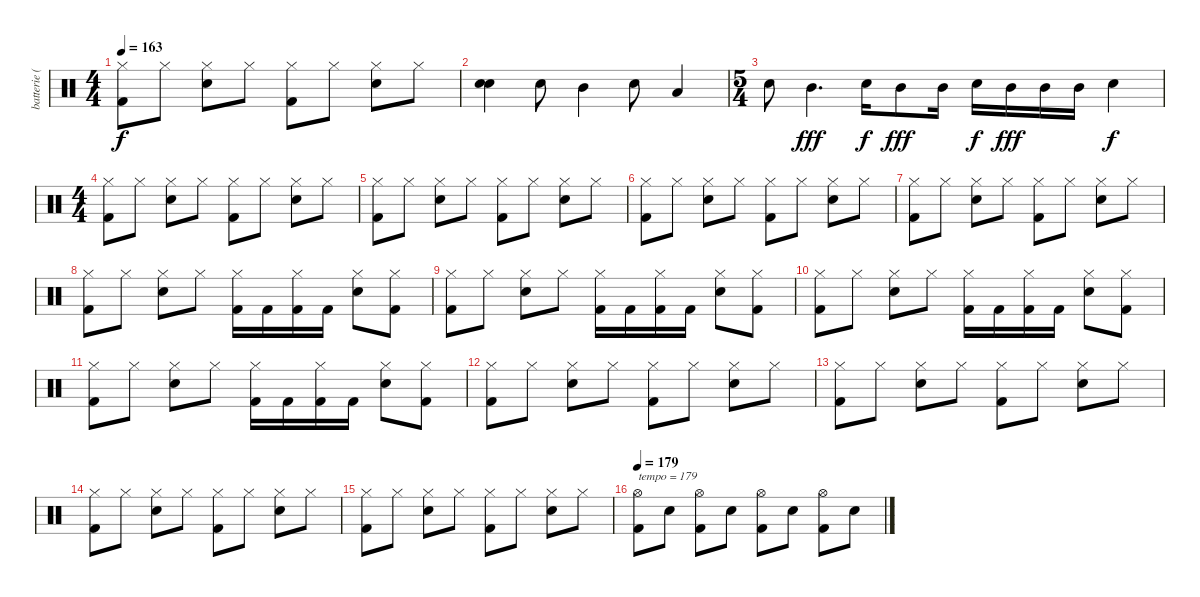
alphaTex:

\track ("batterie ( Carlos ) " "batterie (") {instrument percussion}
\staff {score}
\articulation defaults
\ts (4 4)
\tempo 163
\clef neutral
\ks c
("Hi-Hat (closed)" "Kick (hit) 2").8{dy f} "Hi-Hat (closed)".8 ("Hi-Hat (closed)" "Electric Snare (hit)").8 "Hi-Hat (closed)".8 ("Hi-Hat (closed)" "Kick (hit) 2").8 "Hi-Hat (closed)".8 ("Hi-Hat (closed)" "Electric Snare (hit)").8 "Hi-Hat (closed)".8 |
("Electric Snare (hit)" "Snare (hit) 2").4 "Electric Snare (hit)".8 "Mid Tom (hit)".4 "Electric Snare (hit)".8 "Low Tom (hit)".4 |
\ts (5 4)
"Electric Snare (hit)".8 "Mid Tom (hit)".4{d dy fff} "Electric Snare (hit)".16{dy f} "Mid Tom (hit)".8{dy fff} "Mid Tom (hit)".16 "Electric Snare (hit)".16{dy f} "Mid Tom (hit)".16{dy fff} "Mid Tom (hit)".16 "Mid Tom (hit)".16 "Electric Snare (hit)".4{dy f} |
\ts (4 4)
("Hi-Hat (closed)" "Kick (hit) 2").8 "Hi-Hat (closed)".8 ("Hi-Hat (closed)" "Electric Snare (hit)").8 "Hi-Hat (closed)".8 ("Hi-Hat (closed)" "Kick (hit) 2").8 "Hi-Hat (closed)".8 ("Hi-Hat (closed)" "Electric Snare (hit)").8 "Hi-Hat (closed)".8 |
("Hi-Hat (closed)" "Kick (hit) 2").8 "Hi-Hat (closed)".8 ("Hi-Hat (closed)" "Electric Snare (hit)").8 "Hi-Hat (closed)".8 ("Hi-Hat (closed)" "Kick (hit) 2").8 "Hi-Hat (closed)".8 ("Hi-Hat (closed)" "Electric Snare (hit)").8 "Hi-Hat (closed)".8 |
("Hi-Hat (closed)" "Kick (hit) 2").8 "Hi-Hat (closed)".8 ("Hi-Hat (closed)" "Electric Snare (hit)").8 "Hi-Hat (closed)".8 ("Hi-Hat (closed)" "Kick (hit) 2").8 "Hi-Hat (closed)".8 ("Hi-Hat (closed)" "Electric Snare (hit)").8 "Hi-Hat (closed)".8 |
("Hi-Hat (closed)" "Kick (hit) 2").8 "Hi-Hat (closed)".8 ("Hi-Hat (closed)" "Electric Snare (hit)").8 "Hi-Hat (closed)".8 ("Hi-Hat (closed)" "Kick (hit) 2").8 "Hi-Hat (closed)".8 ("Hi-Hat (closed)" "Electric Snare (hit)").8 "Hi-Hat (closed)".8 |
("Hi-Hat (closed)" "Kick (hit) 2").8 "Hi-Hat (closed)".8 ("Hi-Hat (closed)" "Electric Snare (hit)").8 "Hi-Hat (closed)".8 ("Hi-Hat (closed)" "Kick (hit) 2").16 "Kick (hit) 2".16 ("Hi-Hat (closed)" "Kick (hit) 2").16 "Kick (hit) 2".16 ("Hi-Hat (closed)" "Electric Snare (hit)").8 ("Hi-Hat (closed)" "Kick (hit) 2").8 |
("Hi-Hat (closed)" "Kick (hit) 2").8 "Hi-Hat (closed)".8 ("Hi-Hat (closed)" "Electric Snare (hit)").8 "Hi-Hat (closed)".8 ("Hi-Hat (closed)" "Kick (hit) 2").16 "Kick (hit) 2".16 ("Hi-Hat (closed)" "Kick (hit) 2").16 "Kick (hit) 2".16 ("Hi-Hat (closed)" "Electric Snare (hit)").8 ("Hi-Hat (closed)" "Kick (hit) 2").8 |
("Hi-Hat (closed)" "Kick (hit) 2").8 "Hi-Hat (closed)".8 ("Hi-Hat (closed)" "Electric Snare (hit)").8 "Hi-Hat (closed)".8 ("Hi-Hat (closed)" "Kick (hit) 2").16 "Kick (hit) 2".16 ("Hi-Hat (closed)" "Kick (hit) 2").16 "Kick (hit) 2".16 ("Hi-Hat (closed)" "Electric Snare (hit)").8 ("Hi-Hat (closed)" "Kick (hit) 2").8 |
("Hi-Hat (closed)" "Kick (hit) 2").8 "Hi-Hat (closed)".8 ("Hi-Hat (closed)" "Electric Snare (hit)").8 "Hi-Hat (closed)".8 ("Hi-Hat (closed)" "Kick (hit) 2").16 "Kick (hit) 2".16 ("Hi-Hat (closed)" "Kick (hit) 2").16 "Kick (hit) 2".16 ("Hi-Hat (closed)" "Electric Snare (hit)").8 ("Hi-Hat (closed)" "Kick (hit) 2").8 |
("Hi-Hat (closed)" "Kick (hit) 2").8 "Hi-Hat (closed)".8 ("Hi-Hat (closed)" "Electric Snare (hit)").8 "Hi-Hat (closed)".8 ("Hi-Hat (closed)" "Kick (hit) 2").8 "Hi-Hat (closed)".8 ("Hi-Hat (closed)" "Electric Snare (hit)").8 "Hi-Hat (closed)".8 |
("Hi-Hat (closed)" "Kick (hit) 2").8 "Hi-Hat (closed)".8 ("Hi-Hat (closed)" "Electric Snare (hit)").8 "Hi-Hat (closed)".8 ("Hi-Hat (closed)" "Kick (hit) 2").8 "Hi-Hat (closed)".8 ("Hi-Hat (closed)" "Electric Snare (hit)").8 "Hi-Hat (closed)".8 |
("Hi-Hat (closed)" "Kick (hit) 2").8 "Hi-Hat (closed)".8 ("Hi-Hat (closed)" "Electric Snare (hit)").8 "Hi-Hat (closed)".8 ("Hi-Hat (closed)" "Kick (hit) 2").8 "Hi-Hat (closed)".8 ("Hi-Hat (closed)" "Electric Snare (hit)").8 "Hi-Hat (closed)".8 |
("Hi-Hat (closed)" "Kick (hit) 2").8 "Hi-Hat (closed)".8 ("Hi-Hat (closed)" "Electric Snare (hit)").8 "Hi-Hat (closed)".8 ("Hi-Hat (closed)" "Kick (hit) 2").8 "Hi-Hat (closed)".8 ("Hi-Hat (closed)" "Electric Snare (hit)").8 "Hi-Hat (closed)".8 |
\tempo 179
("Hi-Hat (open)" "Kick (hit) 2").8{txt "tempo = 179"} "Electric Snare (hit)".8 ("Hi-Hat (open)" "Kick (hit) 2").8 "Electric Snare (hit)".8 ("Hi-Hat (open)" "Kick (hit) 2").8 "Electric Snare (hit)".8 ("Hi-Hat (open)" "Kick (hit) 2").8 "Electric Snare (hit)".8
